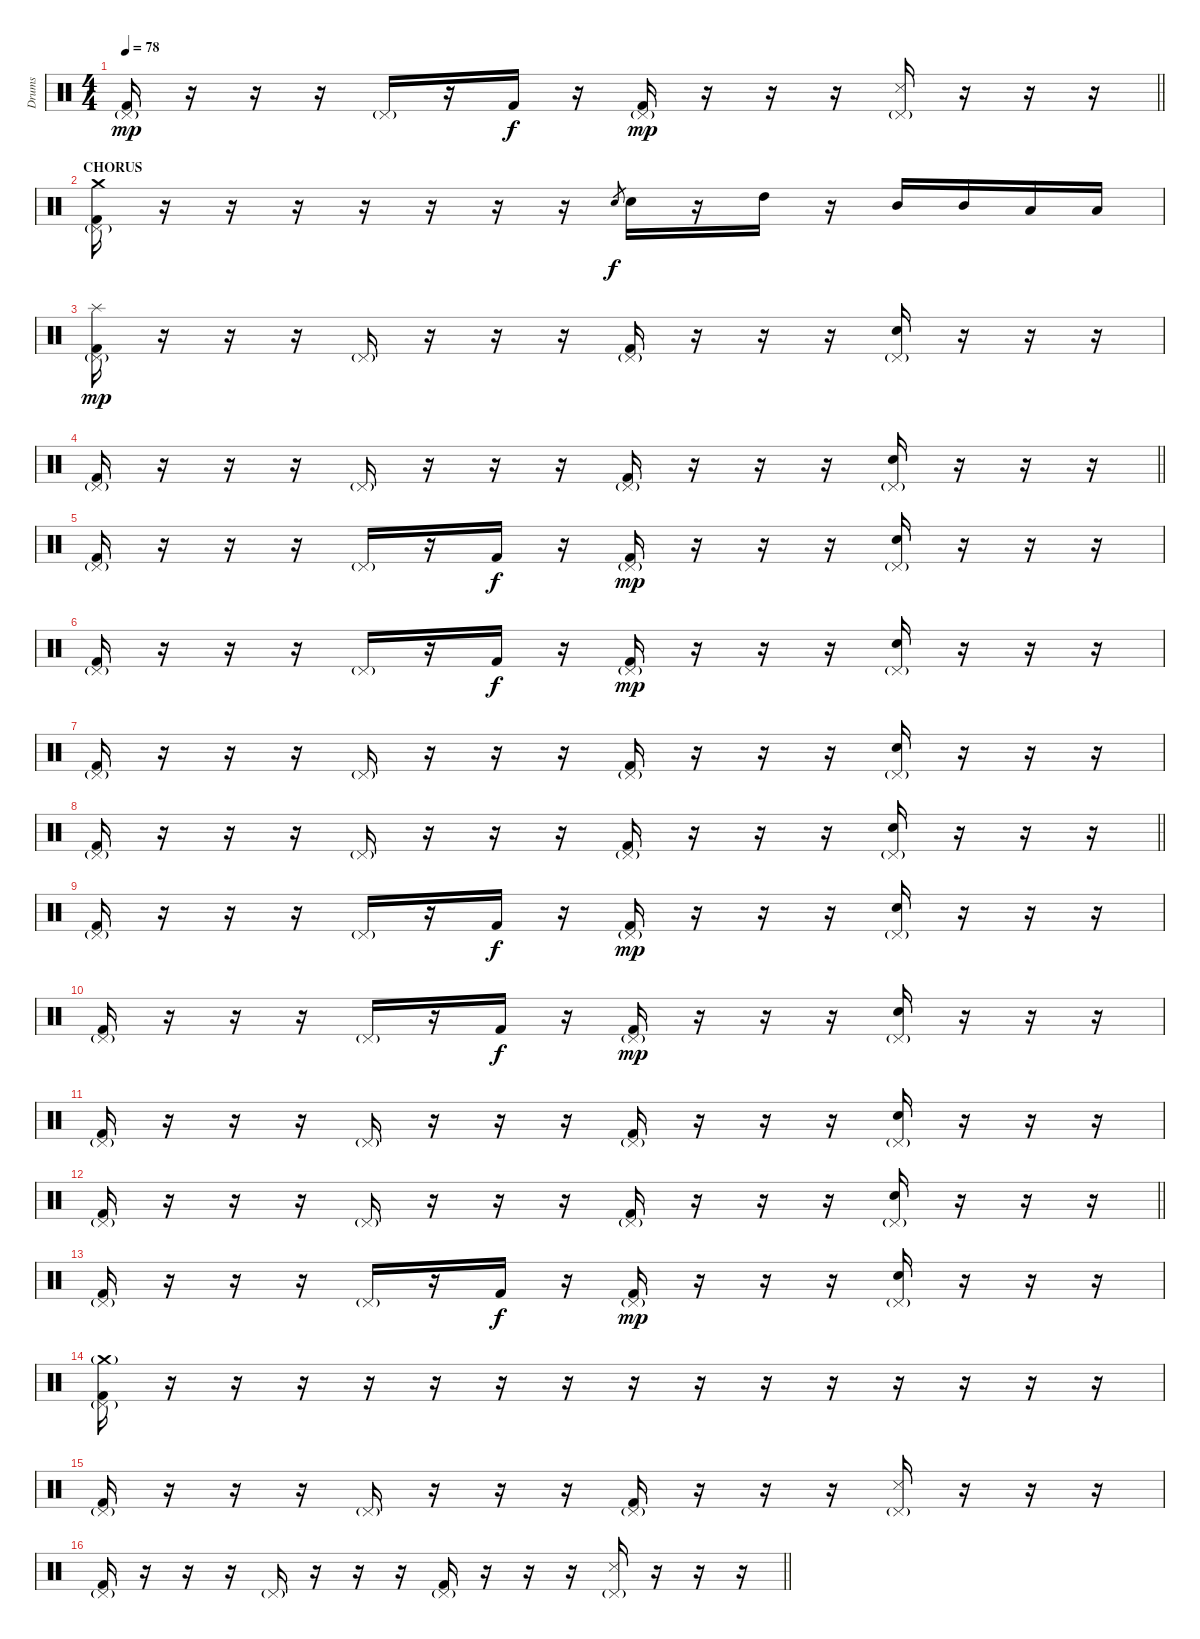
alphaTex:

\track ("Drums" "Drums") {instrument percussion}
\staff {score}
\articulation defaults
\ts (4 4)
\tempo 78
\clef neutral
\barLineRight lightlight
\ks c
("Pedal Hi-Hat (hit)"{g} "Kick (hit) 2").16{dy mp} r.16 r.16 r.16 "Pedal Hi-Hat (hit)"{g}.16 r.16 "Kick (hit) 2".16{dy f} r.16 ("Pedal Hi-Hat (hit)"{g} "Kick (hit) 2").16{dy mp} r.16 r.16 r.16 ("Pedal Hi-Hat (hit)"{g} "Snare (side stick) 3").16 r.16 r.16 r.16 |
\section ("" "CHORUS")
("Crash medium (hit)" "Pedal Hi-Hat (hit)"{g} "Kick (hit) 2").16 r.16 r.16 r.16 r.16 r.16 r.16 r.16 "Snare (hit) 2".8{gr dy f} "Snare (hit) 2".16 r.16 "High Tom (hit)".16 r.16 "Mid Tom (hit)".16 "Mid Tom (hit)".16 "Low Tom (hit)".16 "Low Tom (hit)".16 |
("Splash (hit)" "Pedal Hi-Hat (hit)"{g} "Kick (hit) 2").16{dy mp} r.16 r.16 r.16 "Pedal Hi-Hat (hit)"{g}.16 r.16 r.16 r.16 ("Pedal Hi-Hat (hit)"{g} "Kick (hit) 2").16 r.16 r.16 r.16 ("Pedal Hi-Hat (hit)"{g} "Snare (hit) 2").16 r.16 r.16 r.16 |
\barLineRight lightlight
("Pedal Hi-Hat (hit)"{g} "Kick (hit) 2").16 r.16 r.16 r.16 "Pedal Hi-Hat (hit)"{g}.16 r.16 r.16 r.16 ("Pedal Hi-Hat (hit)"{g} "Kick (hit) 2").16 r.16 r.16 r.16 ("Pedal Hi-Hat (hit)"{g} "Snare (hit) 2").16 r.16 r.16 r.16 |
("Pedal Hi-Hat (hit)"{g} "Kick (hit) 2").16 r.16 r.16 r.16 "Pedal Hi-Hat (hit)"{g}.16 r.16 "Kick (hit) 2".16{dy f} r.16 ("Pedal Hi-Hat (hit)"{g} "Kick (hit) 2").16{dy mp} r.16 r.16 r.16 ("Pedal Hi-Hat (hit)"{g} "Snare (hit) 2").16 r.16 r.16 r.16 |
("Pedal Hi-Hat (hit)"{g} "Kick (hit) 2").16 r.16 r.16 r.16 "Pedal Hi-Hat (hit)"{g}.16 r.16 "Kick (hit) 2".16{dy f} r.16 ("Pedal Hi-Hat (hit)"{g} "Kick (hit) 2").16{dy mp} r.16 r.16 r.16 ("Pedal Hi-Hat (hit)"{g} "Snare (hit) 2").16 r.16 r.16 r.16 |
("Pedal Hi-Hat (hit)"{g} "Kick (hit) 2").16 r.16 r.16 r.16 "Pedal Hi-Hat (hit)"{g}.16 r.16 r.16 r.16 ("Pedal Hi-Hat (hit)"{g} "Kick (hit) 2").16 r.16 r.16 r.16 ("Pedal Hi-Hat (hit)"{g} "Snare (hit) 2").16 r.16 r.16 r.16 |
\barLineRight lightlight
("Pedal Hi-Hat (hit)"{g} "Kick (hit) 2").16 r.16 r.16 r.16 "Pedal Hi-Hat (hit)"{g}.16 r.16 r.16 r.16 ("Pedal Hi-Hat (hit)"{g} "Kick (hit) 2").16 r.16 r.16 r.16 ("Pedal Hi-Hat (hit)"{g} "Snare (hit) 2").16 r.16 r.16 r.16 |
("Pedal Hi-Hat (hit)"{g} "Kick (hit) 2").16 r.16 r.16 r.16 "Pedal Hi-Hat (hit)"{g}.16 r.16 "Kick (hit) 2".16{dy f} r.16 ("Pedal Hi-Hat (hit)"{g} "Kick (hit) 2").16{dy mp} r.16 r.16 r.16 ("Pedal Hi-Hat (hit)"{g} "Snare (hit) 2").16 r.16 r.16 r.16 |
("Pedal Hi-Hat (hit)"{g} "Kick (hit) 2").16 r.16 r.16 r.16 "Pedal Hi-Hat (hit)"{g}.16 r.16 "Kick (hit) 2".16{dy f} r.16 ("Pedal Hi-Hat (hit)"{g} "Kick (hit) 2").16{dy mp} r.16 r.16 r.16 ("Pedal Hi-Hat (hit)"{g} "Snare (hit) 2").16 r.16 r.16 r.16 |
("Pedal Hi-Hat (hit)"{g} "Kick (hit) 2").16 r.16 r.16 r.16 "Pedal Hi-Hat (hit)"{g}.16 r.16 r.16 r.16 ("Pedal Hi-Hat (hit)"{g} "Kick (hit) 2").16 r.16 r.16 r.16 ("Pedal Hi-Hat (hit)"{g} "Snare (hit) 2").16 r.16 r.16 r.16 |
\barLineRight lightlight
("Pedal Hi-Hat (hit)"{g} "Kick (hit) 2").16 r.16 r.16 r.16 "Pedal Hi-Hat (hit)"{g}.16 r.16 r.16 r.16 ("Pedal Hi-Hat (hit)"{g} "Kick (hit) 2").16 r.16 r.16 r.16 ("Pedal Hi-Hat (hit)"{g} "Snare (hit) 2").16 r.16 r.16 r.16 |
("Pedal Hi-Hat (hit)"{g} "Kick (hit) 2").16 r.16 r.16 r.16 "Pedal Hi-Hat (hit)"{g}.16 r.16 "Kick (hit) 2".16{dy f} r.16 ("Pedal Hi-Hat (hit)"{g} "Kick (hit) 2").16{dy mp} r.16 r.16 r.16 ("Pedal Hi-Hat (hit)"{g} "Snare (hit) 2").16 r.16 r.16 r.16 |
("Crash medium (hit)"{g} "Pedal Hi-Hat (hit)"{g} "Kick (hit) 2").16 r.16 r.16 r.16 r.16 r.16 r.16 r.16 r.16 r.16 r.16 r.16 r.16 r.16 r.16 r.16 |
("Pedal Hi-Hat (hit)"{g} "Kick (hit) 2").16 r.16 r.16 r.16 "Pedal Hi-Hat (hit)"{g}.16 r.16 r.16 r.16 ("Pedal Hi-Hat (hit)"{g} "Kick (hit) 2").16 r.16 r.16 r.16 ("Pedal Hi-Hat (hit)"{g} "Snare (side stick) 3").16 r.16 r.16 r.16 |
\barLineRight lightlight
("Pedal Hi-Hat (hit)"{g} "Kick (hit) 2").16 r.16 r.16 r.16 "Pedal Hi-Hat (hit)"{g}.16 r.16 r.16 r.16 ("Pedal Hi-Hat (hit)"{g} "Kick (hit) 2").16 r.16 r.16 r.16 ("Pedal Hi-Hat (hit)"{g} "Snare (side stick) 3").16 r.16 r.16 r.16
